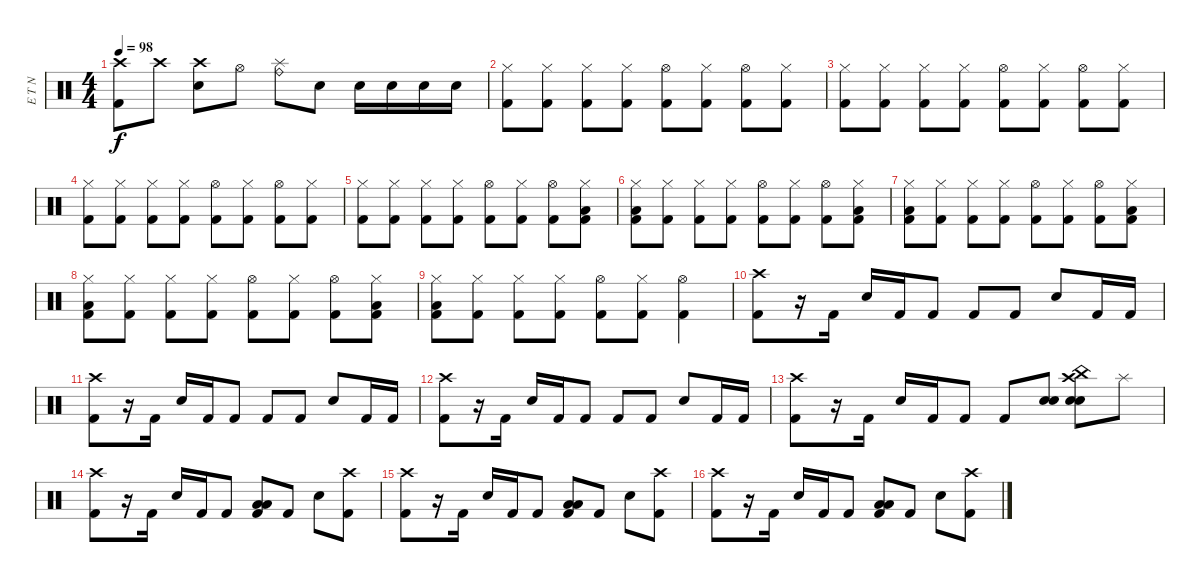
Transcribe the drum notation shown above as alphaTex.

\track ("E T N" "E T N") {instrument percussion}
\staff {score}
\articulation defaults
\ts (4 4)
\tempo 98
\clef neutral
\ks c
("Crash high (hit)" "Kick (hit) 2").8{dy f} "Crash high (hit)".8 ("Crash high (hit)" "Electric Snare (hit)").8 "Hi-Hat (open)".8 ("Ride (bell)" "Splash (hit)").8 "Electric Snare (hit)".8 "Electric Snare (hit)".16 "Electric Snare (hit)".16 "Electric Snare (hit)".16 "Electric Snare (hit)".16 |
("Hi-Hat (closed)" "Kick (hit) 2").8 ("Hi-Hat (closed)" "Kick (hit) 2").8 ("Hi-Hat (closed)" "Kick (hit) 2").8 ("Hi-Hat (closed)" "Kick (hit) 2").8 ("Hi-Hat (open)" "Kick (hit) 2").8 ("Hi-Hat (closed)" "Kick (hit) 2").8 ("Hi-Hat (open)" "Kick (hit) 2").8 ("Hi-Hat (closed)" "Kick (hit) 2").8 |
("Hi-Hat (closed)" "Kick (hit) 2").8 ("Hi-Hat (closed)" "Kick (hit) 2").8 ("Hi-Hat (closed)" "Kick (hit) 2").8 ("Hi-Hat (closed)" "Kick (hit) 2").8 ("Hi-Hat (open)" "Kick (hit) 2").8 ("Hi-Hat (closed)" "Kick (hit) 2").8 ("Hi-Hat (open)" "Kick (hit) 2").8 ("Hi-Hat (closed)" "Kick (hit) 2").8 |
("Hi-Hat (closed)" "Kick (hit) 2").8 ("Hi-Hat (closed)" "Kick (hit) 2").8 ("Hi-Hat (closed)" "Kick (hit) 2").8 ("Hi-Hat (closed)" "Kick (hit) 2").8 ("Hi-Hat (open)" "Kick (hit) 2").8 ("Hi-Hat (closed)" "Kick (hit) 2").8 ("Hi-Hat (open)" "Kick (hit) 2").8 ("Hi-Hat (closed)" "Kick (hit) 2").8 |
("Hi-Hat (closed)" "Kick (hit) 2").8 ("Hi-Hat (closed)" "Kick (hit) 2").8 ("Hi-Hat (closed)" "Kick (hit) 2").8 ("Hi-Hat (closed)" "Kick (hit) 2").8 ("Hi-Hat (open)" "Kick (hit) 2").8 ("Hi-Hat (closed)" "Kick (hit) 2").8 ("Hi-Hat (open)" "Kick (hit) 2").8 ("Hi-Hat (closed)" "Low Floor Tom (hit)" "Kick (hit) 2").8 |
("Hi-Hat (closed)" "Low Floor Tom (hit)" "Kick (hit) 2").8 ("Hi-Hat (closed)" "Kick (hit) 2").8 ("Hi-Hat (closed)" "Kick (hit) 2").8 ("Hi-Hat (closed)" "Kick (hit) 2").8 ("Hi-Hat (open)" "Kick (hit) 2").8 ("Hi-Hat (closed)" "Kick (hit) 2").8 ("Hi-Hat (open)" "Kick (hit) 2").8 ("Hi-Hat (closed)" "Low Floor Tom (hit)" "Kick (hit) 2").8 |
("Hi-Hat (closed)" "Low Floor Tom (hit)" "Kick (hit) 2").8 ("Hi-Hat (closed)" "Kick (hit) 2").8 ("Hi-Hat (closed)" "Kick (hit) 2").8 ("Hi-Hat (closed)" "Kick (hit) 2").8 ("Hi-Hat (open)" "Kick (hit) 2").8 ("Hi-Hat (closed)" "Kick (hit) 2").8 ("Hi-Hat (open)" "Kick (hit) 2").8 ("Hi-Hat (closed)" "Low Floor Tom (hit)" "Kick (hit) 2").8 |
("Hi-Hat (closed)" "Low Floor Tom (hit)" "Kick (hit) 2").8 ("Hi-Hat (closed)" "Kick (hit) 2").8 ("Hi-Hat (closed)" "Kick (hit) 2").8 ("Hi-Hat (closed)" "Kick (hit) 2").8 ("Hi-Hat (open)" "Kick (hit) 2").8 ("Hi-Hat (closed)" "Kick (hit) 2").8 ("Hi-Hat (open)" "Kick (hit) 2").8 ("Hi-Hat (closed)" "Low Floor Tom (hit)" "Kick (hit) 2").8 |
("Hi-Hat (closed)" "Low Floor Tom (hit)" "Kick (hit) 2").8 ("Hi-Hat (closed)" "Kick (hit) 2").8 ("Hi-Hat (closed)" "Kick (hit) 2").8 ("Hi-Hat (closed)" "Kick (hit) 2").8 ("Hi-Hat (open)" "Kick (hit) 2").8 ("Hi-Hat (closed)" "Kick (hit) 2").8 ("Hi-Hat (open)" "Kick (hit) 2").4 |
("Crash high (hit)" "Kick (hit) 2").8 r.16 "Kick (hit) 2".16 "Electric Snare (hit)".16 "Kick (hit) 2".16 "Kick (hit) 2".8 "Kick (hit) 2".8 "Kick (hit) 2".8 "Electric Snare (hit)".8 "Kick (hit) 2".16 "Kick (hit) 2".16 |
("Crash high (hit)" "Kick (hit) 2").8 r.16 "Kick (hit) 2".16 "Electric Snare (hit)".16 "Kick (hit) 2".16 "Kick (hit) 2".8 "Kick (hit) 2".8 "Kick (hit) 2".8 "Electric Snare (hit)".8 "Kick (hit) 2".16 "Kick (hit) 2".16 |
("Crash high (hit)" "Kick (hit) 2").8 r.16 "Kick (hit) 2".16 "Electric Snare (hit)".16 "Kick (hit) 2".16 "Kick (hit) 2".8 "Kick (hit) 2".8 "Kick (hit) 2".8 "Electric Snare (hit)".8 "Kick (hit) 2".16 "Kick (hit) 2".16 |
("Crash high (hit)" "Kick (hit) 2").8 r.16 "Kick (hit) 2".16 "Electric Snare (hit)".16 "Kick (hit) 2".16 "Kick (hit) 2".8 "Kick (hit) 2".8 ("Electric Snare (hit)" "Electric Snare (hit)").8 ("Crash high (hit)" "China (hit)" "Electric Snare (hit)" "Electric Snare (hit)").8 "Splash (hit)".8 |
("Crash high (hit)" "Kick (hit) 2").8 r.16 "Kick (hit) 2".16 "Electric Snare (hit)".16 "Kick (hit) 2".16 "Kick (hit) 2".8 ("Low Tom (hit)" "Low Floor Tom (hit)" "Kick (hit) 2").8 "Kick (hit) 2".8 "Electric Snare (hit)".8 ("Crash high (hit)" "Kick (hit) 2").8 |
("Crash high (hit)" "Kick (hit) 2").8 r.16 "Kick (hit) 2".16 "Electric Snare (hit)".16 "Kick (hit) 2".16 "Kick (hit) 2".8 ("Low Tom (hit)" "Low Floor Tom (hit)" "Kick (hit) 2").8 "Kick (hit) 2".8 "Electric Snare (hit)".8 ("Crash high (hit)" "Kick (hit) 2").8 |
("Crash high (hit)" "Kick (hit) 2").8 r.16 "Kick (hit) 2".16 "Electric Snare (hit)".16 "Kick (hit) 2".16 "Kick (hit) 2".8 ("Low Tom (hit)" "Low Floor Tom (hit)" "Kick (hit) 2").8 "Kick (hit) 2".8 "Electric Snare (hit)".8 ("Crash high (hit)" "Kick (hit) 2").8
